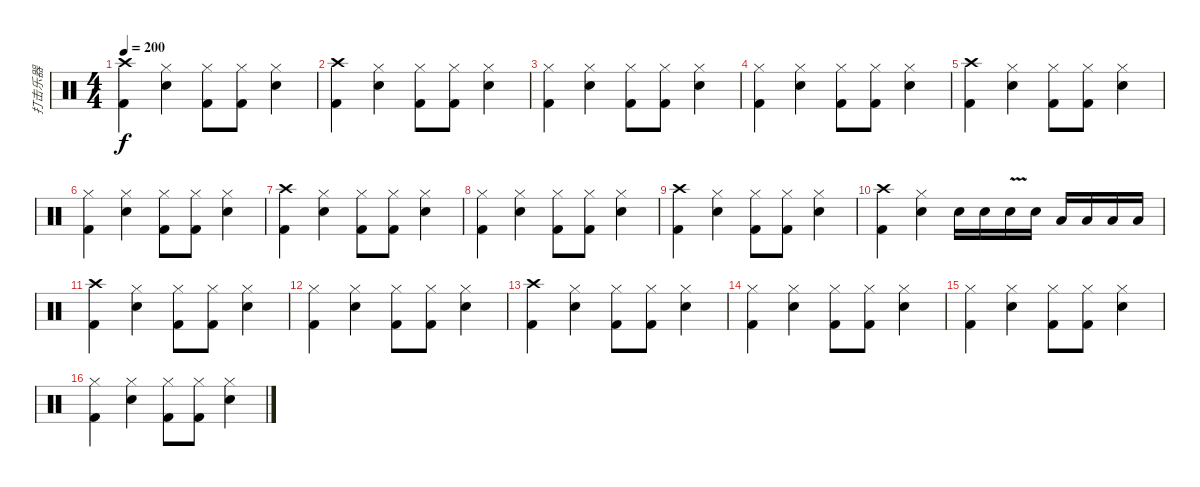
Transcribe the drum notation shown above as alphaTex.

\track ("打击乐器" "打击乐器") {instrument percussion}
\staff {score}
\articulation defaults
\ts (4 4)
\tempo 200
\clef neutral
\ks c
("Crash high (hit)" "Kick (hit) 2").4{dy f} ("Hi-Hat (closed)" "Snare (hit) 2").4 ("Hi-Hat (closed)" "Kick (hit) 2").8 ("Hi-Hat (closed)" "Kick (hit) 2").8 ("Hi-Hat (closed)" "Snare (hit) 2").4 |
("Crash high (hit)" "Kick (hit) 2").4 ("Hi-Hat (closed)" "Snare (hit) 2").4 ("Hi-Hat (closed)" "Kick (hit) 2").8 ("Hi-Hat (closed)" "Kick (hit) 2").8 ("Hi-Hat (closed)" "Snare (hit) 2").4 |
("Hi-Hat (closed)" "Kick (hit) 2").4 ("Hi-Hat (closed)" "Snare (hit) 2").4 ("Hi-Hat (closed)" "Kick (hit) 2").8 ("Hi-Hat (closed)" "Kick (hit) 2").8 ("Hi-Hat (closed)" "Snare (hit) 2").4 |
("Hi-Hat (closed)" "Kick (hit) 2").4 ("Hi-Hat (closed)" "Snare (hit) 2").4 ("Hi-Hat (closed)" "Kick (hit) 2").8 ("Hi-Hat (closed)" "Kick (hit) 2").8 ("Hi-Hat (closed)" "Snare (hit) 2").4 |
("Crash high (hit)" "Kick (hit) 2").4 ("Hi-Hat (closed)" "Snare (hit) 2").4 ("Hi-Hat (closed)" "Kick (hit) 2").8 ("Hi-Hat (closed)" "Kick (hit) 2").8 ("Hi-Hat (closed)" "Snare (hit) 2").4 |
("Hi-Hat (closed)" "Kick (hit) 2").4 ("Hi-Hat (closed)" "Snare (hit) 2").4 ("Hi-Hat (closed)" "Kick (hit) 2").8 ("Hi-Hat (closed)" "Kick (hit) 2").8 ("Hi-Hat (closed)" "Snare (hit) 2").4 |
("Crash high (hit)" "Kick (hit) 2").4 ("Hi-Hat (closed)" "Snare (hit) 2").4 ("Hi-Hat (closed)" "Kick (hit) 2").8 ("Hi-Hat (closed)" "Kick (hit) 2").8 ("Hi-Hat (closed)" "Snare (hit) 2").4 |
("Hi-Hat (closed)" "Kick (hit) 2").4 ("Hi-Hat (closed)" "Snare (hit) 2").4 ("Hi-Hat (closed)" "Kick (hit) 2").8 ("Hi-Hat (closed)" "Kick (hit) 2").8 ("Hi-Hat (closed)" "Snare (hit) 2").4 |
("Crash high (hit)" "Kick (hit) 2").4 ("Hi-Hat (closed)" "Snare (hit) 2").4 ("Hi-Hat (closed)" "Kick (hit) 2").8 ("Hi-Hat (closed)" "Kick (hit) 2").8 ("Hi-Hat (closed)" "Snare (hit) 2").4 |
("Crash high (hit)" "Kick (hit) 2").4 ("Hi-Hat (closed)" "Snare (hit) 2").4 "Snare (hit) 2".16 "Snare (hit) 2".16 "Snare (hit) 2"{v}.16 "Snare (hit) 2".16 "Low Floor Tom (hit)".16 "Low Floor Tom (hit)".16 "Low Tom (hit)".16 "Low Tom (hit)".16 |
("Crash high (hit)" "Kick (hit) 2").4 ("Hi-Hat (closed)" "Snare (hit) 2").4 ("Hi-Hat (closed)" "Kick (hit) 2").8 ("Hi-Hat (closed)" "Kick (hit) 2").8 ("Hi-Hat (closed)" "Snare (hit) 2").4 |
("Hi-Hat (closed)" "Kick (hit) 2").4 ("Hi-Hat (closed)" "Snare (hit) 2").4 ("Hi-Hat (closed)" "Kick (hit) 2").8 ("Hi-Hat (closed)" "Kick (hit) 2").8 ("Hi-Hat (closed)" "Snare (hit) 2").4 |
("Crash high (hit)" "Kick (hit) 2").4 ("Hi-Hat (closed)" "Snare (hit) 2").4 ("Hi-Hat (closed)" "Kick (hit) 2").8 ("Hi-Hat (closed)" "Kick (hit) 2").8 ("Hi-Hat (closed)" "Snare (hit) 2").4 |
("Hi-Hat (closed)" "Kick (hit) 2").4 ("Hi-Hat (closed)" "Snare (hit) 2").4 ("Hi-Hat (closed)" "Kick (hit) 2").8 ("Hi-Hat (closed)" "Kick (hit) 2").8 ("Hi-Hat (closed)" "Snare (hit) 2").4 |
("Hi-Hat (closed)" "Kick (hit) 2").4 ("Hi-Hat (closed)" "Snare (hit) 2").4 ("Hi-Hat (closed)" "Kick (hit) 2").8 ("Hi-Hat (closed)" "Kick (hit) 2").8 ("Hi-Hat (closed)" "Snare (hit) 2").4 |
("Hi-Hat (closed)" "Kick (hit) 2").4 ("Hi-Hat (closed)" "Snare (hit) 2").4 ("Hi-Hat (closed)" "Kick (hit) 2").8 ("Hi-Hat (closed)" "Kick (hit) 2").8 ("Hi-Hat (closed)" "Snare (hit) 2").4
